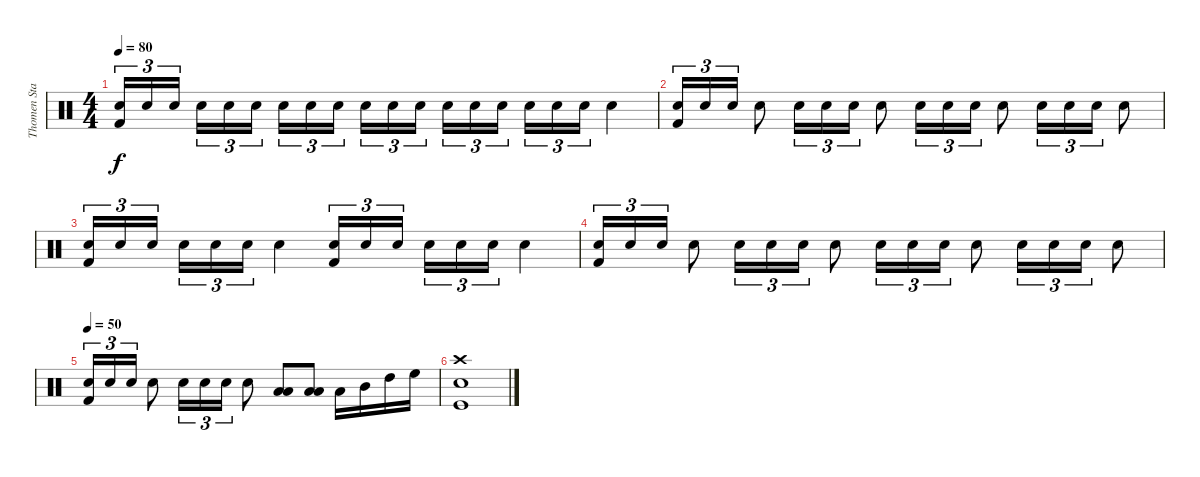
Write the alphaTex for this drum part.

\track ("Thomen Stauch" "Thomen Sta") {instrument percussion}
\staff {score}
\articulation defaults
\ts (4 4)
\tempo 80
\clef neutral
\ks c
("Kick (hit) 2" "Snare (hit) 2").16{tu (3 2) dy f} "Snare (hit) 2".16{tu (3 2)} "Snare (hit) 2".16{tu (3 2)} "Snare (hit) 2".16{tu (3 2)} "Snare (hit) 2".16{tu (3 2)} "Snare (hit) 2".16{tu (3 2)} "Snare (hit) 2".16{tu (3 2)} "Snare (hit) 2".16{tu (3 2)} "Snare (hit) 2".16{tu (3 2)} "Snare (hit) 2".16{tu (3 2)} "Snare (hit) 2".16{tu (3 2)} "Snare (hit) 2".16{tu (3 2)} "Snare (hit) 2".16{tu (3 2)} "Snare (hit) 2".16{tu (3 2)} "Snare (hit) 2".16{tu (3 2)} "Snare (hit) 2".16{tu (3 2)} "Snare (hit) 2".16{tu (3 2)} "Snare (hit) 2".16{tu (3 2)} "Snare (hit) 2".4 |
("Kick (hit) 2" "Snare (hit) 2").16{tu (3 2)} "Snare (hit) 2".16{tu (3 2)} "Snare (hit) 2".16{tu (3 2)} "Snare (hit) 2".8 "Snare (hit) 2".16{tu (3 2)} "Snare (hit) 2".16{tu (3 2)} "Snare (hit) 2".16{tu (3 2)} "Snare (hit) 2".8 "Snare (hit) 2".16{tu (3 2)} "Snare (hit) 2".16{tu (3 2)} "Snare (hit) 2".16{tu (3 2)} "Snare (hit) 2".8 "Snare (hit) 2".16{tu (3 2)} "Snare (hit) 2".16{tu (3 2)} "Snare (hit) 2".16{tu (3 2)} "Snare (hit) 2".8 |
("Kick (hit) 2" "Snare (hit) 2").16{tu (3 2)} "Snare (hit) 2".16{tu (3 2)} "Snare (hit) 2".16{tu (3 2)} "Snare (hit) 2".16{tu (3 2)} "Snare (hit) 2".16{tu (3 2)} "Snare (hit) 2".16{tu (3 2)} "Snare (hit) 2".4 ("Kick (hit) 2" "Snare (hit) 2").16{tu (3 2)} "Snare (hit) 2".16{tu (3 2)} "Snare (hit) 2".16{tu (3 2)} "Snare (hit) 2".16{tu (3 2)} "Snare (hit) 2".16{tu (3 2)} "Snare (hit) 2".16{tu (3 2)} "Snare (hit) 2".4 |
("Kick (hit) 2" "Snare (hit) 2").16{tu (3 2)} "Snare (hit) 2".16{tu (3 2)} "Snare (hit) 2".16{tu (3 2)} "Snare (hit) 2".8 "Snare (hit) 2".16{tu (3 2)} "Snare (hit) 2".16{tu (3 2)} "Snare (hit) 2".16{tu (3 2)} "Snare (hit) 2".8 "Snare (hit) 2".16{tu (3 2)} "Snare (hit) 2".16{tu (3 2)} "Snare (hit) 2".16{tu (3 2)} "Snare (hit) 2".8 "Snare (hit) 2".16{tu (3 2)} "Snare (hit) 2".16{tu (3 2)} "Snare (hit) 2".16{tu (3 2)} "Snare (hit) 2".8 |
\tempo 50
("Kick (hit) 2" "Snare (hit) 2").16{tu (3 2)} "Snare (hit) 2".16{tu (3 2)} "Snare (hit) 2".16{tu (3 2)} "Snare (hit) 2".8 "Snare (hit) 2".16{tu (3 2)} "Snare (hit) 2".16{tu (3 2)} "Snare (hit) 2".16{tu (3 2)} "Snare (hit) 2".8 ("Low Tom (hit)" "Low Tom (hit)").8 ("Low Tom (hit)" "Low Tom (hit)").8 "Low Tom (hit)".16 "Mid Tom (hit)".16 "High Tom (hit)".16 "High Floor Tom (hit)".16 |
("Kick (hit)" "Snare (hit) 2" "Crash high (hit)").1
